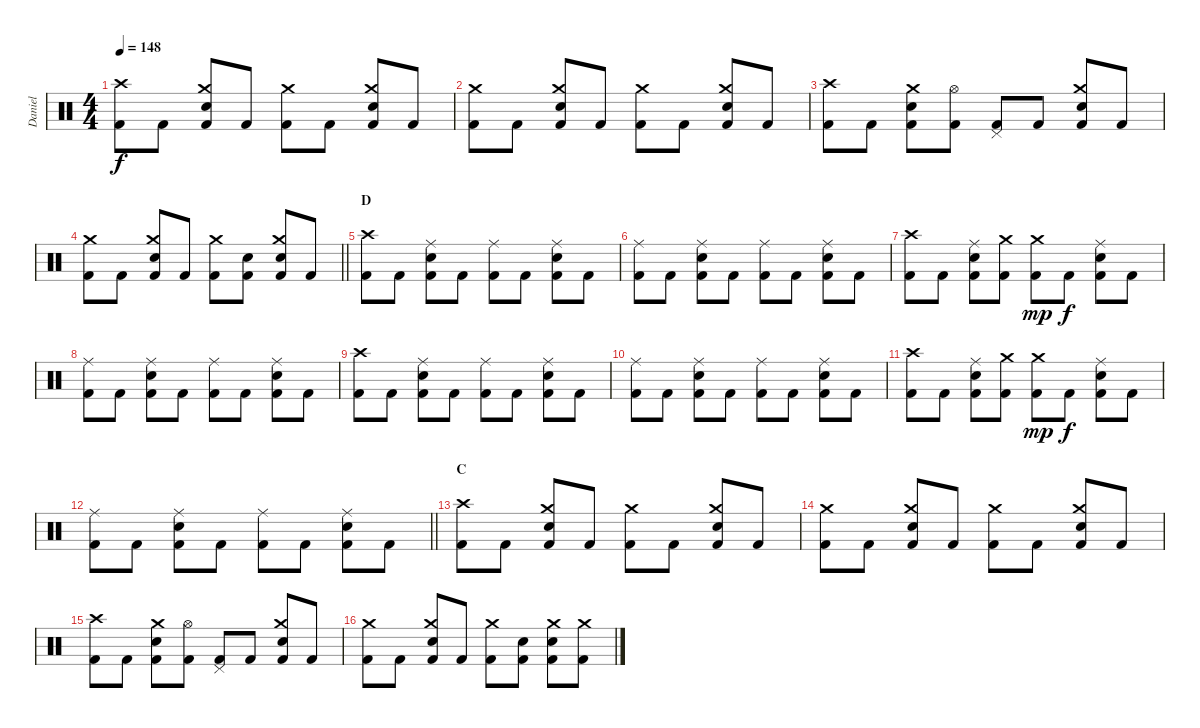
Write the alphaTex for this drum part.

\track ("Daniel" "Daniel") {instrument percussion}
\staff {score}
\articulation defaults
\ts (4 4)
\tempo 148
\clef neutral
\ks c
("Crash high (hit)" "Kick (hit) 2").8{dy f} "Kick (hit) 2".8 ("Crash medium (hit)" "Snare (hit) 2" "Kick (hit) 2").8 "Kick (hit) 2".8 ("Crash medium (hit)" "Kick (hit) 2").8 "Kick (hit) 2".8 ("Crash medium (hit)" "Snare (hit) 2" "Kick (hit) 2").8 "Kick (hit) 2".8 |
("Crash medium (hit)" "Kick (hit) 2").8 "Kick (hit) 2".8 ("Crash medium (hit)" "Snare (hit) 2" "Kick (hit) 2").8 "Kick (hit) 2".8 ("Crash medium (hit)" "Kick (hit) 2").8 "Kick (hit) 2".8 ("Crash medium (hit)" "Snare (hit) 2" "Kick (hit) 2").8 "Kick (hit) 2".8 |
("Crash high (hit)" "Kick (hit) 2").8 "Kick (hit) 2".8 ("Crash medium (hit)" "Snare (hit) 2" "Kick (hit) 2").8 ("Hi-Hat (open)" "Kick (hit) 2").8 ("Pedal Hi-Hat (hit)" "Kick (hit) 2").8 "Kick (hit) 2".8 ("Crash medium (hit)" "Snare (hit) 2" "Kick (hit) 2").8 "Kick (hit) 2".8 |
\barLineRight lightlight
("Crash medium (hit)" "Kick (hit) 2").8 "Kick (hit) 2".8 ("Crash medium (hit)" "Snare (hit) 2" "Kick (hit) 2").8 "Kick (hit) 2".8 ("Crash medium (hit)" "Kick (hit) 2").8 ("Snare (hit) 2" "Kick (hit) 2").8 ("Crash medium (hit)" "Snare (hit) 2" "Kick (hit) 2").8 "Kick (hit) 2".8 |
\section ("" "D")
("Crash high (hit)" "Kick (hit) 2").8 "Kick (hit) 2".8 ("Ride (middle)" "Snare (hit) 2" "Kick (hit) 2").8 "Kick (hit) 2".8 ("Ride (middle)" "Kick (hit) 2").8 "Kick (hit) 2".8 ("Ride (middle)" "Snare (hit) 2" "Kick (hit) 2").8 "Kick (hit) 2".8 |
("Ride (middle)" "Kick (hit) 2").8 "Kick (hit) 2".8 ("Ride (middle)" "Snare (hit) 2" "Kick (hit) 2").8 "Kick (hit) 2".8 ("Ride (middle)" "Kick (hit) 2").8 "Kick (hit) 2".8 ("Ride (middle)" "Snare (hit) 2" "Kick (hit) 2").8 "Kick (hit) 2".8 |
("Crash high (hit)" "Kick (hit) 2").8 "Kick (hit) 2".8 ("Ride (middle)" "Snare (hit) 2" "Kick (hit) 2").8 ("Crash medium (hit)" "Kick (hit) 2").8 ("Crash medium (hit)" "Kick (hit) 2").8{dy mp} "Kick (hit) 2".8{dy f} ("Ride (middle)" "Snare (hit) 2" "Kick (hit) 2").8 "Kick (hit) 2".8 |
("Ride (middle)" "Kick (hit) 2").8 "Kick (hit) 2".8 ("Ride (middle)" "Snare (hit) 2" "Kick (hit) 2").8 "Kick (hit) 2".8 ("Ride (middle)" "Kick (hit) 2").8 "Kick (hit) 2".8 ("Ride (middle)" "Snare (hit) 2" "Kick (hit) 2").8 "Kick (hit) 2".8 |
("Crash high (hit)" "Kick (hit) 2").8 "Kick (hit) 2".8 ("Ride (middle)" "Snare (hit) 2" "Kick (hit) 2").8 "Kick (hit) 2".8 ("Ride (middle)" "Kick (hit) 2").8 "Kick (hit) 2".8 ("Ride (middle)" "Snare (hit) 2" "Kick (hit) 2").8 "Kick (hit) 2".8 |
("Ride (middle)" "Kick (hit) 2").8 "Kick (hit) 2".8 ("Ride (middle)" "Snare (hit) 2" "Kick (hit) 2").8 "Kick (hit) 2".8 ("Ride (middle)" "Kick (hit) 2").8 "Kick (hit) 2".8 ("Ride (middle)" "Snare (hit) 2" "Kick (hit) 2").8 "Kick (hit) 2".8 |
("Crash high (hit)" "Kick (hit) 2").8 "Kick (hit) 2".8 ("Ride (middle)" "Snare (hit) 2" "Kick (hit) 2").8 ("Crash medium (hit)" "Kick (hit) 2").8 ("Crash medium (hit)" "Kick (hit) 2").8{dy mp} "Kick (hit) 2".8{dy f} ("Ride (middle)" "Snare (hit) 2" "Kick (hit) 2").8 "Kick (hit) 2".8 |
\barLineRight lightlight
("Ride (middle)" "Kick (hit) 2").8 "Kick (hit) 2".8 ("Ride (middle)" "Snare (hit) 2" "Kick (hit) 2").8 "Kick (hit) 2".8 ("Ride (middle)" "Kick (hit) 2").8 "Kick (hit) 2".8 ("Ride (middle)" "Snare (hit) 2" "Kick (hit) 2").8 "Kick (hit) 2".8 |
\section ("" "C")
("Crash high (hit)" "Kick (hit) 2").8 "Kick (hit) 2".8 ("Crash medium (hit)" "Snare (hit) 2" "Kick (hit) 2").8 "Kick (hit) 2".8 ("Crash medium (hit)" "Kick (hit) 2").8 "Kick (hit) 2".8 ("Crash medium (hit)" "Snare (hit) 2" "Kick (hit) 2").8 "Kick (hit) 2".8 |
("Crash medium (hit)" "Kick (hit) 2").8 "Kick (hit) 2".8 ("Crash medium (hit)" "Snare (hit) 2" "Kick (hit) 2").8 "Kick (hit) 2".8 ("Crash medium (hit)" "Kick (hit) 2").8 "Kick (hit) 2".8 ("Crash medium (hit)" "Snare (hit) 2" "Kick (hit) 2").8 "Kick (hit) 2".8 |
("Crash high (hit)" "Kick (hit) 2").8 "Kick (hit) 2".8 ("Crash medium (hit)" "Snare (hit) 2" "Kick (hit) 2").8 ("Hi-Hat (open)" "Kick (hit) 2").8 ("Pedal Hi-Hat (hit)" "Kick (hit) 2").8 "Kick (hit) 2".8 ("Crash medium (hit)" "Snare (hit) 2" "Kick (hit) 2").8 "Kick (hit) 2".8 |
("Crash medium (hit)" "Kick (hit) 2").8 "Kick (hit) 2".8 ("Crash medium (hit)" "Snare (hit) 2" "Kick (hit) 2").8 "Kick (hit) 2".8 ("Crash medium (hit)" "Kick (hit) 2").8 ("Snare (hit) 2" "Kick (hit) 2").8 ("Crash medium (hit)" "Snare (hit) 2" "Kick (hit) 2").8 ("Crash medium (hit)" "Kick (hit) 2").8
